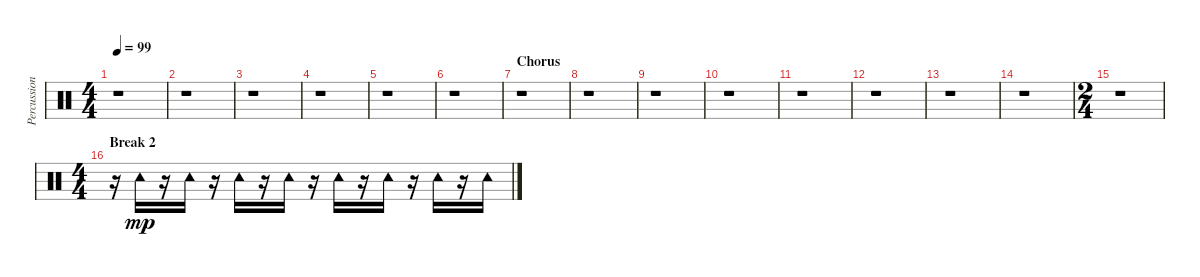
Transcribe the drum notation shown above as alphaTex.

\track ("Percussion" "Percussion") {instrument percussion}
\staff {score}
\articulation defaults
\ts (4 4)
\tempo 99
\clef neutral
\ks c
r.1{dy mp} |
r.1 |
r.1 |
r.1 |
r.1 |
r.1 |
\section ("" "Chorus")
r.1 |
r.1 |
r.1 |
r.1 |
r.1 |
r.1 |
r.1 |
r.1 |
\ts (2 4)
r.1 |
\ts (4 4)
\section ("" "Break 2")
r.16 "Tambourine (hit)".16 r.16 "Tambourine (hit)".16 r.16 "Tambourine (hit)".16 r.16 "Tambourine (hit)".16 r.16 "Tambourine (hit)".16 r.16 "Tambourine (hit)".16 r.16 "Tambourine (hit)".16 r.16 "Tambourine (hit)".16
